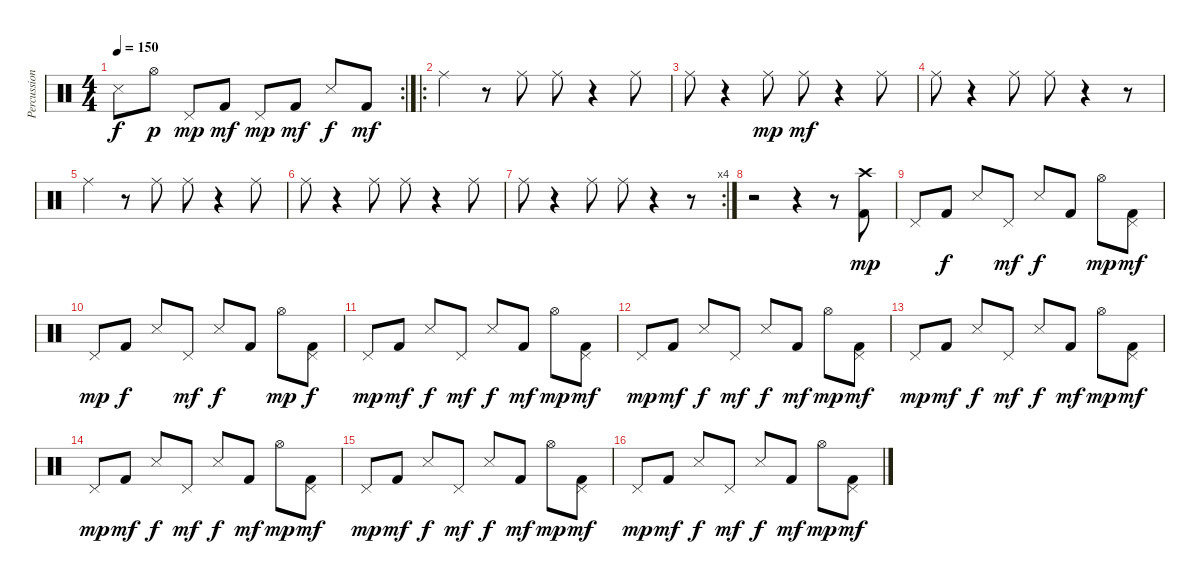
\track ("Percussion" "Percussion") {instrument percussion}
\staff {score}
\articulation defaults
\rc 2
\ts (4 4)
\tempo 150
\clef neutral
\ks c "Snare (side stick) 3".8{dy f} "Hi-Hat (open)".8{dy p} "Pedal Hi-Hat (hit)".8{dy mp} "Kick (hit) 2".8{dy mf} "Pedal Hi-Hat (hit)".8{dy mp} "Kick (hit) 2".8{dy mf} "Snare (side stick) 3".8{dy f} "Kick (hit) 2".8{dy mf}
|
\ro "Ride (middle)".4
r.8 "Ride (middle)".8 "Ride (middle)".8 r.4 "Ride (middle)".8 |
"Ride (middle)".8 r.4 "Ride (middle)".8{dy mp} "Ride (middle)".8{dy mf} r.4 "Ride (middle)".8 |
"Ride (middle)".8 r.4 "Ride (middle)".8 "Ride (middle)".8 r.4 r.8 |
"Ride (middle)".4 r.8 "Ride (middle)".8 "Ride (middle)".8 r.4 "Ride (middle)".8 |
"Ride (middle)".8 r.4 "Ride (middle)".8 "Ride (middle)".8 r.4 "Ride (middle)".8 |
\rc 4 "Ride (middle)".8
r.4 "Ride (middle)".8 "Ride (middle)".8 r.4 r.8 |
r.2 r.4 r.8 ("Crash high (hit)" "Kick (hit) 2").8{dy mp} |
"Pedal Hi-Hat (hit)".8 "Kick (hit) 2".8{dy f} "Snare (side stick) 3".8 "Pedal Hi-Hat (hit)".8{dy mf} "Snare (side stick) 3".8{dy f} "Kick (hit) 2".8 "Hi-Hat (open)".8{dy mp} ("Pedal Hi-Hat (hit)" "Kick (hit) 2").8{dy mf} |
"Pedal Hi-Hat (hit)".8{dy mp} "Kick (hit) 2".8{dy f} "Snare (side stick) 3".8 "Pedal Hi-Hat (hit)".8{dy mf} "Snare (side stick) 3".8{dy f} "Kick (hit) 2".8 "Hi-Hat (open)".8{dy mp} ("Pedal Hi-Hat (hit)" "Kick (hit) 2").8{dy f} |
"Pedal Hi-Hat (hit)".8{dy mp} "Kick (hit) 2".8{dy mf} "Snare (side stick) 3".8{dy f} "Pedal Hi-Hat (hit)".8{dy mf} "Snare (side stick) 3".8{dy f} "Kick (hit) 2".8{dy mf} "Hi-Hat (open)".8{dy mp} ("Pedal Hi-Hat (hit)" "Kick (hit) 2").8{dy mf} |
"Pedal Hi-Hat (hit)".8{dy mp} "Kick (hit) 2".8{dy mf} "Snare (side stick) 3".8{dy f} "Pedal Hi-Hat (hit)".8{dy mf} "Snare (side stick) 3".8{dy f} "Kick (hit) 2".8{dy mf} "Hi-Hat (open)".8{dy mp} ("Pedal Hi-Hat (hit)" "Kick (hit) 2").8{dy mf} |
"Pedal Hi-Hat (hit)".8{dy mp} "Kick (hit) 2".8{dy mf} "Snare (side stick) 3".8{dy f} "Pedal Hi-Hat (hit)".8{dy mf} "Snare (side stick) 3".8{dy f} "Kick (hit) 2".8{dy mf} "Hi-Hat (open)".8{dy mp} ("Pedal Hi-Hat (hit)" "Kick (hit) 2").8{dy mf} |
"Pedal Hi-Hat (hit)".8{dy mp} "Kick (hit) 2".8{dy mf} "Snare (side stick) 3".8{dy f} "Pedal Hi-Hat (hit)".8{dy mf} "Snare (side stick) 3".8{dy f} "Kick (hit) 2".8{dy mf} "Hi-Hat (open)".8{dy mp} ("Pedal Hi-Hat (hit)" "Kick (hit) 2").8{dy mf} |
"Pedal Hi-Hat (hit)".8{dy mp} "Kick (hit) 2".8{dy mf} "Snare (side stick) 3".8{dy f} "Pedal Hi-Hat (hit)".8{dy mf} "Snare (side stick) 3".8{dy f} "Kick (hit) 2".8{dy mf} "Hi-Hat (open)".8{dy mp} ("Pedal Hi-Hat (hit)" "Kick (hit) 2").8{dy mf} |
"Pedal Hi-Hat (hit)".8{dy mp} "Kick (hit) 2".8{dy mf} "Snare (side stick) 3".8{dy f} "Pedal Hi-Hat (hit)".8{dy mf} "Snare (side stick) 3".8{dy f} "Kick (hit) 2".8{dy mf} "Hi-Hat (open)".8{dy mp} ("Pedal Hi-Hat (hit)" "Kick (hit) 2").8{dy mf}
